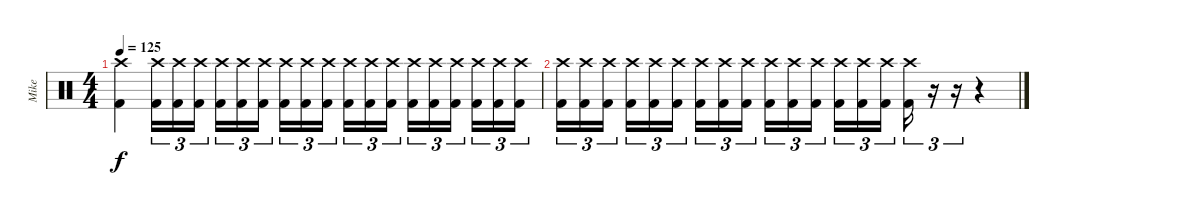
\track ("Mike" "Mike") {instrument percussion}
\staff {score}
\articulation defaults
\ts (4 4)
\tempo 125
\clef neutral
\ks c
("Kick (hit) 2" "Crash high (hit)").4{dy f} ("Kick (hit) 2" "Crash high (hit)").16{tu (3 2)} ("Kick (hit) 2" "Crash high (hit)").16{tu (3 2)} ("Kick (hit) 2" "Crash high (hit)").16{tu (3 2) beam splitsecondary} ("Kick (hit) 2" "Crash high (hit)").16{tu (3 2)} ("Kick (hit) 2" "Crash high (hit)").16{tu (3 2)} ("Kick (hit) 2" "Crash high (hit)").16{tu (3 2)} ("Kick (hit) 2" "Crash high (hit)").16{tu (3 2)} ("Kick (hit) 2" "Crash high (hit)").16{tu (3 2)} ("Kick (hit) 2" "Crash high (hit)").16{tu (3 2) beam splitsecondary} ("Kick (hit) 2" "Crash high (hit)").16{tu (3 2)} ("Kick (hit) 2" "Crash high (hit)").16{tu (3 2)} ("Kick (hit) 2" "Crash high (hit)").16{tu (3 2)} ("Kick (hit) 2" "Crash high (hit)").16{tu (3 2)} ("Kick (hit) 2" "Crash high (hit)").16{tu (3 2)} ("Kick (hit) 2" "Crash high (hit)").16{tu (3 2) beam splitsecondary} ("Kick (hit) 2" "Crash high (hit)").16{tu (3 2)} ("Kick (hit) 2" "Crash high (hit)").16{tu (3 2)} ("Kick (hit) 2" "Crash high (hit)").16{tu (3 2)} |
("Kick (hit) 2" "Crash high (hit)").16{tu (3 2)} ("Kick (hit) 2" "Crash high (hit)").16{tu (3 2)} ("Kick (hit) 2" "Crash high (hit)").16{tu (3 2) beam splitsecondary} ("Kick (hit) 2" "Crash high (hit)").16{tu (3 2)} ("Kick (hit) 2" "Crash high (hit)").16{tu (3 2)} ("Kick (hit) 2" "Crash high (hit)").16{tu (3 2)} ("Kick (hit) 2" "Crash high (hit)").16{tu (3 2)} ("Kick (hit) 2" "Crash high (hit)").16{tu (3 2)} ("Kick (hit) 2" "Crash high (hit)").16{tu (3 2) beam splitsecondary} ("Kick (hit) 2" "Crash high (hit)").16{tu (3 2)} ("Kick (hit) 2" "Crash high (hit)").16{tu (3 2)} ("Kick (hit) 2" "Crash high (hit)").16{tu (3 2)} ("Kick (hit) 2" "Crash high (hit)").16{tu (3 2)} ("Kick (hit) 2" "Crash high (hit)").16{tu (3 2)} ("Kick (hit) 2" "Crash high (hit)").16{tu (3 2) beam splitsecondary} ("Kick (hit) 2" "Crash high (hit)").16{tu (3 2)} r.16{tu (3 2)} r.16{tu (3 2)} r.4
